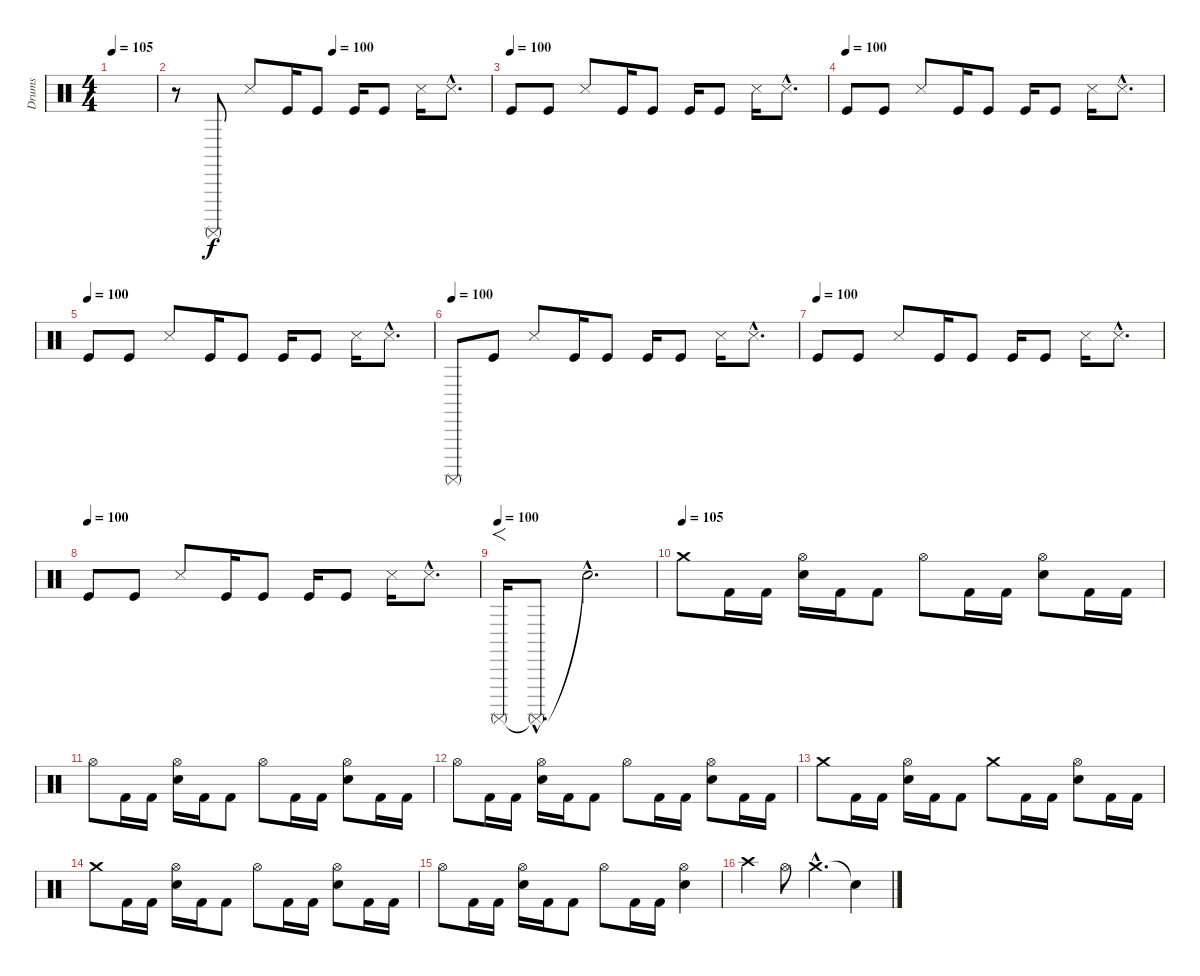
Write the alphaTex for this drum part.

\track ("Drums" "Drums") {instrument percussion}
\staff {score}
\articulation defaults
\ts (4 4)
\tempo 105
\tempo 100
\tempo 105
\clef neutral
\ks c
|
\tempo (100 0.5)
r.8 "Surdo (mute)".8 "Snare (side stick) 3".8{dy f} "Kick (hit)".16 "Kick (hit)".8 "Kick (hit)".16 "Kick (hit)".8 "Snare (side stick) 3".16 "Snare (side stick) 3"{hac}.8{d} |
\tempo (100)
"Kick (hit)".8 "Kick (hit)".8 "Snare (side stick) 3".8 "Kick (hit)".16 "Kick (hit)".8 "Kick (hit)".16 "Kick (hit)".8 "Snare (side stick) 3".16 "Snare (side stick) 3"{hac}.8{d} |
\tempo (100)
"Kick (hit)".8 "Kick (hit)".8 "Snare (side stick) 3".8 "Kick (hit)".16 "Kick (hit)".8 "Kick (hit)".16 "Kick (hit)".8 "Snare (side stick) 3".16 "Snare (side stick) 3"{hac}.8{d} |
\tempo (100)
"Kick (hit)".8 "Kick (hit)".8 "Snare (side stick) 3".8 "Kick (hit)".16 "Kick (hit)".8 "Kick (hit)".16 "Kick (hit)".8 "Snare (side stick) 3".16 "Snare (side stick) 3"{hac}.8{d} |
\tempo (100)
"Surdo (mute)".8 "Kick (hit)".8 "Snare (side stick) 3".8 "Kick (hit)".16 "Kick (hit)".8 "Kick (hit)".16 "Kick (hit)".8 "Snare (side stick) 3".16 "Snare (side stick) 3"{hac}.8{d} |
\tempo (100)
"Kick (hit)".8 "Kick (hit)".8 "Snare (side stick) 3".8 "Kick (hit)".16 "Kick (hit)".8 "Kick (hit)".16 "Kick (hit)".8 "Snare (side stick) 3".16 "Snare (side stick) 3"{hac}.8{d} |
\tempo (100)
"Kick (hit)".8 "Kick (hit)".8 "Snare (side stick) 3".8 "Kick (hit)".16 "Kick (hit)".8 "Kick (hit)".16 "Kick (hit)".8 "Snare (side stick) 3".16 "Snare (side stick) 3"{hac}.8{d} |
\tempo (100)
"Surdo (mute)".16{f} "Surdo (mute)"{hac t}.8{d} "Snare (hit)"{hac t}.2{d} |
\tempo (105)
"Crash medium (hit)".8 "Kick (hit) 2".16 "Kick (hit) 2".16 ("Hi-Hat (open)" "Electric Snare (hit)").16 "Kick (hit) 2".16 "Kick (hit) 2".8 "Hi-Hat (open)".8 "Kick (hit) 2".16 "Kick (hit) 2".16 ("Hi-Hat (open)" "Electric Snare (hit)").8 "Kick (hit) 2".16 "Kick (hit) 2".16 |
"Hi-Hat (open)".8 "Kick (hit) 2".16 "Kick (hit) 2".16 ("Hi-Hat (open)" "Electric Snare (hit)").16 "Kick (hit) 2".16 "Kick (hit) 2".8 "Hi-Hat (open)".8 "Kick (hit) 2".16 "Kick (hit) 2".16 ("Hi-Hat (open)" "Electric Snare (hit)").8 "Kick (hit) 2".16 "Kick (hit) 2".16 |
"Hi-Hat (open)".8 "Kick (hit) 2".16 "Kick (hit) 2".16 ("Hi-Hat (open)" "Electric Snare (hit)").16 "Kick (hit) 2".16 "Kick (hit) 2".8 "Hi-Hat (open)".8 "Kick (hit) 2".16 "Kick (hit) 2".16 ("Hi-Hat (open)" "Electric Snare (hit)").8 "Kick (hit) 2".16 "Kick (hit) 2".16 |
"Crash medium (hit)".8 "Kick (hit) 2".16 "Kick (hit) 2".16 ("Hi-Hat (open)" "Electric Snare (hit)").16 "Kick (hit) 2".16 "Kick (hit) 2".8 "Crash medium (hit)".8 "Kick (hit) 2".16 "Kick (hit) 2".16 ("Hi-Hat (open)" "Electric Snare (hit)").8 "Kick (hit) 2".16 "Kick (hit) 2".16 |
"Crash medium (hit)".8 "Kick (hit) 2".16 "Kick (hit) 2".16 ("Hi-Hat (open)" "Electric Snare (hit)").16 "Kick (hit) 2".16 "Kick (hit) 2".8 "Hi-Hat (open)".8 "Kick (hit) 2".16 "Kick (hit) 2".16 ("Hi-Hat (open)" "Electric Snare (hit)").8 "Kick (hit) 2".16 "Kick (hit) 2".16 |
"Hi-Hat (open)".8 "Kick (hit) 2".16 "Kick (hit) 2".16 ("Hi-Hat (open)" "Electric Snare (hit)").16 "Kick (hit) 2".16 "Kick (hit) 2".8 "Hi-Hat (open)".8 "Kick (hit) 2".16 "Kick (hit) 2".16 ("Hi-Hat (open)" "Electric Snare (hit)").4 |
"Crash high (hit)".4 "Hi-Hat (open)".8 "Crash medium (hit)"{hac}.4{d} "Snare (hit)"{t}.4
